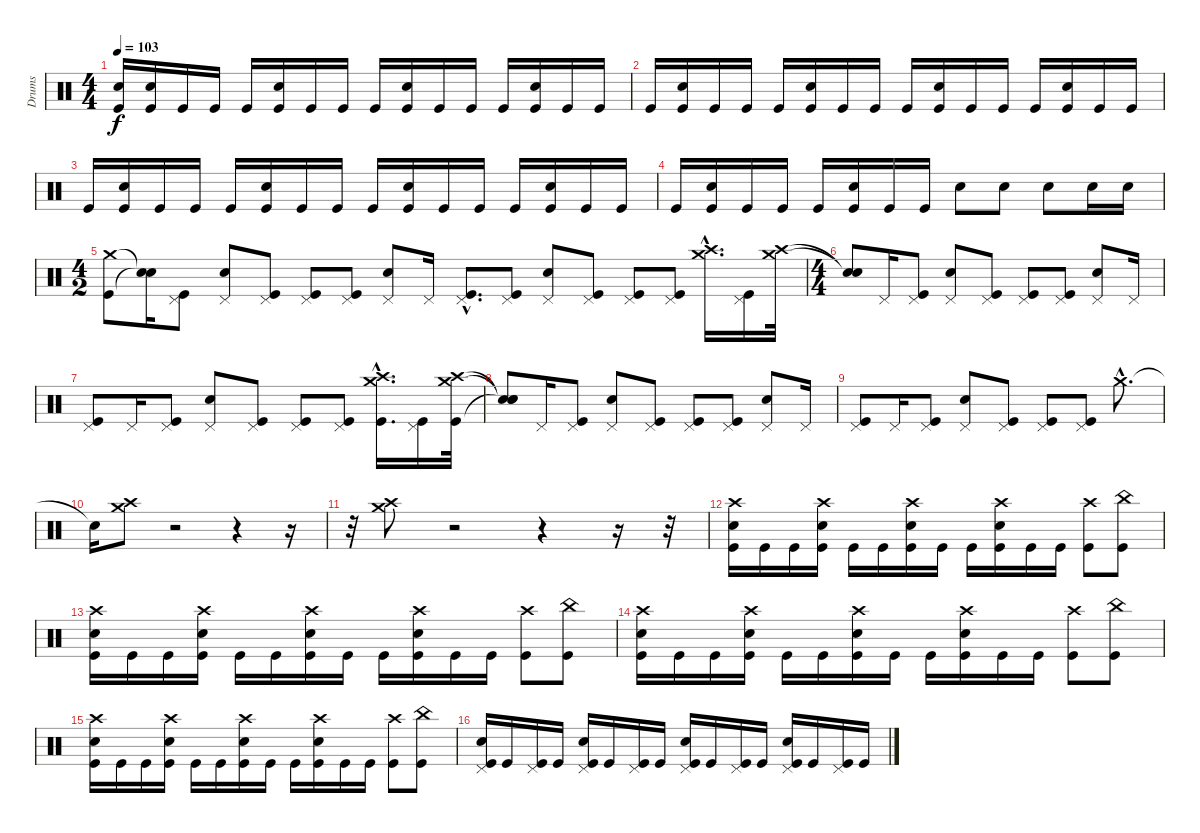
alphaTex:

\track ("Drums" "Drums") {instrument percussion}
\staff {score}
\articulation defaults
\ts (4 4)
\tempo 103
\clef neutral
\ks c
("Electric Snare (hit)" "Kick (hit)").16{dy f} ("Electric Snare (hit)" "Kick (hit)").16 "Kick (hit)".16 "Kick (hit)".16 "Kick (hit)".16 ("Electric Snare (hit)" "Kick (hit)").16 "Kick (hit)".16 "Kick (hit)".16 "Kick (hit)".16 ("Electric Snare (hit)" "Kick (hit)").16 "Kick (hit)".16 "Kick (hit)".16 "Kick (hit)".16 ("Electric Snare (hit)" "Kick (hit)").16 "Kick (hit)".16 "Kick (hit)".16 |
"Kick (hit)".16 ("Electric Snare (hit)" "Kick (hit)").16 "Kick (hit)".16 "Kick (hit)".16 "Kick (hit)".16 ("Electric Snare (hit)" "Kick (hit)").16 "Kick (hit)".16 "Kick (hit)".16 "Kick (hit)".16 ("Electric Snare (hit)" "Kick (hit)").16 "Kick (hit)".16 "Kick (hit)".16 "Kick (hit)".16 ("Electric Snare (hit)" "Kick (hit)").16 "Kick (hit)".16 "Kick (hit)".16 |
"Kick (hit)".16 ("Electric Snare (hit)" "Kick (hit)").16 "Kick (hit)".16 "Kick (hit)".16 "Kick (hit)".16 ("Electric Snare (hit)" "Kick (hit)").16 "Kick (hit)".16 "Kick (hit)".16 "Kick (hit)".16 ("Electric Snare (hit)" "Kick (hit)").16 "Kick (hit)".16 "Kick (hit)".16 "Kick (hit)".16 ("Electric Snare (hit)" "Kick (hit)").16 "Kick (hit)".16 "Kick (hit)".16 |
"Kick (hit)".16 ("Electric Snare (hit)" "Kick (hit)").16 "Kick (hit)".16 "Kick (hit)".16 "Kick (hit)".16 ("Electric Snare (hit)" "Kick (hit)").16 "Kick (hit)".16 "Kick (hit)".16 "Electric Snare (hit)".8 "Electric Snare (hit)".8 "Electric Snare (hit)".8 "Electric Snare (hit)".16 "Electric Snare (hit)".16 |
\ts (4 2)
("Crash medium (hit)" "Kick (hit)").8 ("Snare (hit)"{t} "Snare (hit)"{t}).16 ("Pedal Hi-Hat (hit)" "Kick (hit)").8 ("Pedal Hi-Hat (hit)" "Electric Snare (hit)").8 ("Pedal Hi-Hat (hit)" "Kick (hit)").8 ("Pedal Hi-Hat (hit)" "Kick (hit)").8 ("Pedal Hi-Hat (hit)" "Kick (hit)").8 ("Electric Snare (hit)" "Pedal Hi-Hat (hit)").8 "Pedal Hi-Hat (hit)".16 ("Pedal Hi-Hat (hit)"{hac} "Kick (hit)"{hac}).8{d} ("Pedal Hi-Hat (hit)" "Kick (hit)").8 ("Pedal Hi-Hat (hit)" "Electric Snare (hit)").8 ("Pedal Hi-Hat (hit)" "Kick (hit)").8 ("Pedal Hi-Hat (hit)" "Kick (hit)").8 ("Pedal Hi-Hat (hit)" "Kick (hit)").8 ("Crash medium (hit)"{hac} "Crash high (hit)"{hac}).16{d} ("Pedal Hi-Hat (hit)" "Kick (hit)").16 ("Crash high (hit)" "Crash medium (hit)").32 |
\ts (4 4)
("Snare (hit)"{t} "Snare (hit)"{t}).8 "Pedal Hi-Hat (hit)".16 ("Pedal Hi-Hat (hit)" "Kick (hit)").8 ("Pedal Hi-Hat (hit)" "Electric Snare (hit)").8 ("Pedal Hi-Hat (hit)" "Kick (hit)").8 ("Pedal Hi-Hat (hit)" "Kick (hit)").8 ("Pedal Hi-Hat (hit)" "Kick (hit)").8 ("Electric Snare (hit)" "Pedal Hi-Hat (hit)").8 "Pedal Hi-Hat (hit)".16 |
("Pedal Hi-Hat (hit)" "Kick (hit)").8 "Pedal Hi-Hat (hit)".16 ("Pedal Hi-Hat (hit)" "Kick (hit)").8 ("Pedal Hi-Hat (hit)" "Electric Snare (hit)").8 ("Pedal Hi-Hat (hit)" "Kick (hit)").8 ("Pedal Hi-Hat (hit)" "Kick (hit)").8 ("Pedal Hi-Hat (hit)" "Kick (hit)").8 ("Crash high (hit)"{hac} "Crash medium (hit)"{hac} "Kick (hit)"{hac}).16{d} ("Pedal Hi-Hat (hit)" "Kick (hit)").16 ("Crash medium (hit)" "Crash high (hit)" "Kick (hit)").32 |
("Snare (hit)"{t} "Snare (hit)"{t} "Snare (hit)"{t}).8 "Pedal Hi-Hat (hit)".16 ("Pedal Hi-Hat (hit)" "Kick (hit)").8 ("Pedal Hi-Hat (hit)" "Electric Snare (hit)").8 ("Pedal Hi-Hat (hit)" "Kick (hit)").8 ("Pedal Hi-Hat (hit)" "Kick (hit)").8 ("Pedal Hi-Hat (hit)" "Kick (hit)").8 ("Electric Snare (hit)" "Pedal Hi-Hat (hit)").8 "Pedal Hi-Hat (hit)".16 |
("Pedal Hi-Hat (hit)" "Kick (hit)").8 "Pedal Hi-Hat (hit)".16 ("Pedal Hi-Hat (hit)" "Kick (hit)").8 ("Pedal Hi-Hat (hit)" "Electric Snare (hit)").8 ("Pedal Hi-Hat (hit)" "Kick (hit)").8 ("Pedal Hi-Hat (hit)" "Kick (hit)").8 ("Pedal Hi-Hat (hit)" "Kick (hit)").8 "Crash medium (hit)"{hac}.8{d} |
"Snare (hit)"{t}.16 ("Crash high (hit)" "Crash medium (hit)").8 r.2 r.4 r.16 |
r.32 ("Crash high (hit)" "Crash medium (hit)").8 r.2 r.4 r.16 r.32 |
("Crash high (hit)" "Electric Snare (hit)" "Kick (hit)").16 "Kick (hit)".16 "Kick (hit)".16 ("Crash high (hit)" "Electric Snare (hit)" "Kick (hit)").16 "Kick (hit)".16 "Kick (hit)".16 ("Crash high (hit)" "Electric Snare (hit)" "Kick (hit)").16 "Kick (hit)".16 "Kick (hit)".16 ("Crash high (hit)" "Electric Snare (hit)" "Kick (hit)").16 "Kick (hit)".16 "Kick (hit)".16 ("Crash high (hit)" "Kick (hit)").8 ("China (hit)" "Kick (hit)").8 |
("Crash high (hit)" "Electric Snare (hit)" "Kick (hit)").16 "Kick (hit)".16 "Kick (hit)".16 ("Crash high (hit)" "Electric Snare (hit)" "Kick (hit)").16 "Kick (hit)".16 "Kick (hit)".16 ("Crash high (hit)" "Electric Snare (hit)" "Kick (hit)").16 "Kick (hit)".16 "Kick (hit)".16 ("Crash high (hit)" "Electric Snare (hit)" "Kick (hit)").16 "Kick (hit)".16 "Kick (hit)".16 ("Crash high (hit)" "Kick (hit)").8 ("China (hit)" "Kick (hit)").8 |
("Crash high (hit)" "Electric Snare (hit)" "Kick (hit)").16 "Kick (hit)".16 "Kick (hit)".16 ("Crash high (hit)" "Electric Snare (hit)" "Kick (hit)").16 "Kick (hit)".16 "Kick (hit)".16 ("Crash high (hit)" "Electric Snare (hit)" "Kick (hit)").16 "Kick (hit)".16 "Kick (hit)".16 ("Crash high (hit)" "Electric Snare (hit)" "Kick (hit)").16 "Kick (hit)".16 "Kick (hit)".16 ("Crash high (hit)" "Kick (hit)").8 ("China (hit)" "Kick (hit)").8 |
("Crash high (hit)" "Electric Snare (hit)" "Kick (hit)").16 "Kick (hit)".16 "Kick (hit)".16 ("Crash high (hit)" "Electric Snare (hit)" "Kick (hit)").16 "Kick (hit)".16 "Kick (hit)".16 ("Crash high (hit)" "Electric Snare (hit)" "Kick (hit)").16 "Kick (hit)".16 "Kick (hit)".16 ("Crash high (hit)" "Electric Snare (hit)" "Kick (hit)").16 "Kick (hit)".16 "Kick (hit)".16 ("Crash high (hit)" "Kick (hit)").8 ("China (hit)" "Kick (hit)").8 |
("Pedal Hi-Hat (hit)" "Electric Snare (hit)" "Kick (hit)").16 "Kick (hit)".16 ("Pedal Hi-Hat (hit)" "Kick (hit)").16 "Kick (hit)".16 ("Pedal Hi-Hat (hit)" "Electric Snare (hit)" "Kick (hit)").16 "Kick (hit)".16 ("Pedal Hi-Hat (hit)" "Kick (hit)").16 "Kick (hit)".16 ("Pedal Hi-Hat (hit)" "Electric Snare (hit)" "Kick (hit)").16 "Kick (hit)".16 ("Pedal Hi-Hat (hit)" "Kick (hit)").16 "Kick (hit)".16 ("Pedal Hi-Hat (hit)" "Electric Snare (hit)" "Kick (hit)").16 "Kick (hit)".16 ("Pedal Hi-Hat (hit)" "Kick (hit)").16 "Kick (hit)".16
